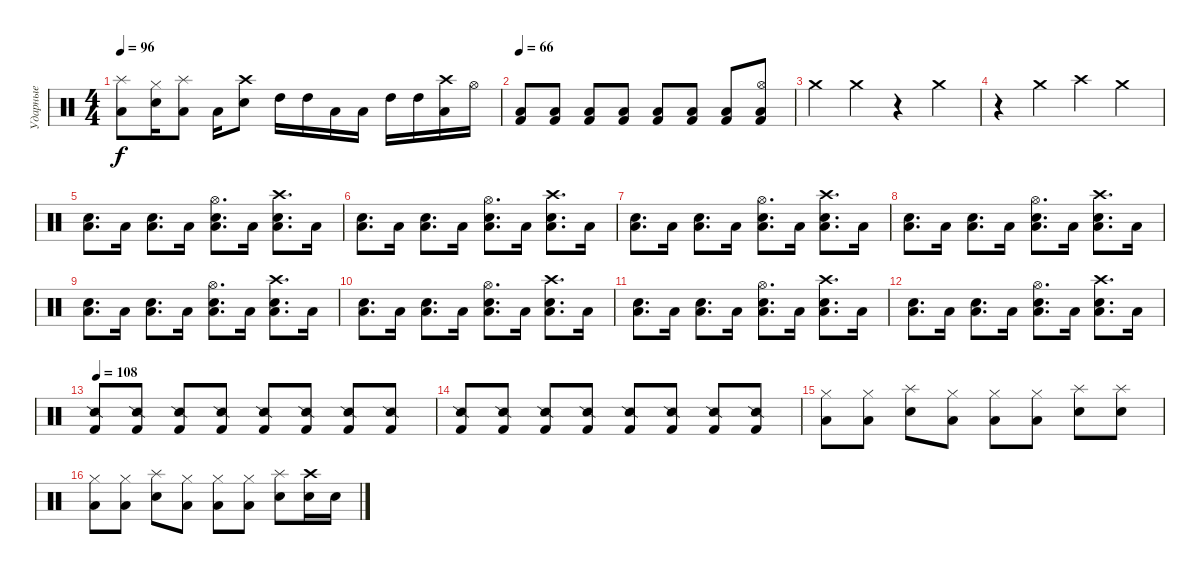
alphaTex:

\track ("Ударные" "Ударные") {instrument percussion}
\staff {score}
\articulation defaults
\ts (4 4)
\tempo 96
\clef neutral
\ks c
("Low Floor Tom (hit)" "Splash (hit)").8{dy f} ("Electric Snare (hit)" "Hi-Hat (closed)").16 ("Low Floor Tom (hit)" "Splash (hit)").8 "Low Floor Tom (hit)".16 ("Electric Snare (hit)" "Crash high (hit)").8 "High Tom (hit)".16 "High Tom (hit)".16 "Low Tom (hit)".16 "Low Tom (hit)".16 "High Tom (hit)".16 "High Tom (hit)".16 ("Low Tom (hit)" "Crash high (hit)").16 "Hi-Hat (open)".16 |
\tempo 66
("Kick (hit) 2" "Low Floor Tom (hit)").8 ("Kick (hit) 2" "Low Floor Tom (hit)").8 ("Kick (hit) 2" "Low Floor Tom (hit)").8 ("Kick (hit) 2" "Low Floor Tom (hit)").8 ("Kick (hit) 2" "Low Floor Tom (hit)").8 ("Kick (hit) 2" "Low Floor Tom (hit)").8 ("Kick (hit) 2" "Low Floor Tom (hit)").8 ("Kick (hit) 2" "Low Floor Tom (hit)" "Hi-Hat (open)").8 |
"Crash medium (hit)".4 "Crash medium (hit)".4 r.4 "Crash medium (hit)".4 |
r.4 "Crash medium (hit)".4 "Crash high (hit)".4 "Crash medium (hit)".4 |
("Low Floor Tom (hit)" "Electric Snare (hit)").8{d} "Low Floor Tom (hit)".16 ("Low Floor Tom (hit)" "Electric Snare (hit)").8{d} "Low Floor Tom (hit)".16 ("Low Floor Tom (hit)" "Electric Snare (hit)" "Hi-Hat (open)").8{d} "Low Floor Tom (hit)".16 ("Low Floor Tom (hit)" "Electric Snare (hit)" "Crash high (hit)").8{d} "Low Floor Tom (hit)".16 |
("Low Floor Tom (hit)" "Electric Snare (hit)").8{d} "Low Floor Tom (hit)".16 ("Low Floor Tom (hit)" "Electric Snare (hit)").8{d} "Low Floor Tom (hit)".16 ("Low Floor Tom (hit)" "Electric Snare (hit)" "Hi-Hat (open)").8{d} "Low Floor Tom (hit)".16 ("Low Floor Tom (hit)" "Electric Snare (hit)" "Crash high (hit)").8{d} "Low Floor Tom (hit)".16 |
("Low Floor Tom (hit)" "Electric Snare (hit)").8{d} "Low Floor Tom (hit)".16 ("Low Floor Tom (hit)" "Electric Snare (hit)").8{d} "Low Floor Tom (hit)".16 ("Low Floor Tom (hit)" "Electric Snare (hit)" "Hi-Hat (open)").8{d} "Low Floor Tom (hit)".16 ("Low Floor Tom (hit)" "Electric Snare (hit)" "Crash high (hit)").8{d} "Low Floor Tom (hit)".16 |
("Low Floor Tom (hit)" "Electric Snare (hit)").8{d} "Low Floor Tom (hit)".16 ("Low Floor Tom (hit)" "Electric Snare (hit)").8{d} "Low Floor Tom (hit)".16 ("Low Floor Tom (hit)" "Electric Snare (hit)" "Hi-Hat (open)").8{d} "Low Floor Tom (hit)".16 ("Low Floor Tom (hit)" "Electric Snare (hit)" "Crash high (hit)").8{d} "Low Floor Tom (hit)".16 |
("Low Floor Tom (hit)" "Electric Snare (hit)").8{d} "Low Floor Tom (hit)".16 ("Low Floor Tom (hit)" "Electric Snare (hit)").8{d} "Low Floor Tom (hit)".16 ("Low Floor Tom (hit)" "Electric Snare (hit)" "Hi-Hat (open)").8{d} "Low Floor Tom (hit)".16 ("Low Floor Tom (hit)" "Electric Snare (hit)" "Crash high (hit)").8{d} "Low Floor Tom (hit)".16 |
("Low Floor Tom (hit)" "Electric Snare (hit)").8{d} "Low Floor Tom (hit)".16 ("Low Floor Tom (hit)" "Electric Snare (hit)").8{d} "Low Floor Tom (hit)".16 ("Low Floor Tom (hit)" "Electric Snare (hit)" "Hi-Hat (open)").8{d} "Low Floor Tom (hit)".16 ("Low Floor Tom (hit)" "Electric Snare (hit)" "Crash high (hit)").8{d} "Low Floor Tom (hit)".16 |
("Low Floor Tom (hit)" "Electric Snare (hit)").8{d} "Low Floor Tom (hit)".16 ("Low Floor Tom (hit)" "Electric Snare (hit)").8{d} "Low Floor Tom (hit)".16 ("Low Floor Tom (hit)" "Electric Snare (hit)" "Hi-Hat (open)").8{d} "Low Floor Tom (hit)".16 ("Low Floor Tom (hit)" "Electric Snare (hit)" "Crash high (hit)").8{d} "Low Floor Tom (hit)".16 |
("Low Floor Tom (hit)" "Electric Snare (hit)").8{d} "Low Floor Tom (hit)".16 ("Low Floor Tom (hit)" "Electric Snare (hit)").8{d} "Low Floor Tom (hit)".16 ("Low Floor Tom (hit)" "Electric Snare (hit)" "Hi-Hat (open)").8{d} "Low Floor Tom (hit)".16 ("Low Floor Tom (hit)" "Electric Snare (hit)" "Crash high (hit)").8{d} "Low Floor Tom (hit)".16 |
\tempo 108
("Kick (hit) 2" "Snare (side stick) 2").8 ("Kick (hit) 2" "Snare (side stick) 2").8 ("Kick (hit) 2" "Snare (side stick) 2").8 ("Kick (hit) 2" "Snare (side stick) 2").8 ("Kick (hit) 2" "Snare (side stick) 2").8 ("Kick (hit) 2" "Snare (side stick) 2").8 ("Kick (hit) 2" "Snare (side stick) 2").8 ("Kick (hit) 2" "Snare (side stick) 2").8 |
("Kick (hit) 2" "Snare (side stick) 2").8 ("Kick (hit) 2" "Snare (side stick) 2").8 ("Kick (hit) 2" "Snare (side stick) 2").8 ("Kick (hit) 2" "Snare (side stick) 2").8 ("Kick (hit) 2" "Snare (side stick) 2").8 ("Kick (hit) 2" "Snare (side stick) 2").8 ("Kick (hit) 2" "Snare (side stick) 2").8 ("Kick (hit) 2" "Snare (side stick) 2").8 |
("Low Floor Tom (hit)" "Hi-Hat (closed)").8 ("Low Floor Tom (hit)" "Hi-Hat (closed)").8 ("Electric Snare (hit)" "Splash (hit)").8 ("Low Floor Tom (hit)" "Hi-Hat (closed)").8 ("Low Floor Tom (hit)" "Hi-Hat (closed)").8 ("Low Floor Tom (hit)" "Hi-Hat (closed)").8 ("Electric Snare (hit)" "Splash (hit)").8 ("Electric Snare (hit)" "Splash (hit)").8 |
("Low Floor Tom (hit)" "Hi-Hat (closed)").8 ("Low Floor Tom (hit)" "Hi-Hat (closed)").8 ("Electric Snare (hit)" "Splash (hit)").8 ("Low Floor Tom (hit)" "Hi-Hat (closed)").8 ("Low Floor Tom (hit)" "Hi-Hat (closed)").8 ("Low Floor Tom (hit)" "Hi-Hat (closed)").8 ("Electric Snare (hit)" "Splash (hit)").8 ("Electric Snare (hit)" "Crash high (hit)").16 "Electric Snare (hit)".16
